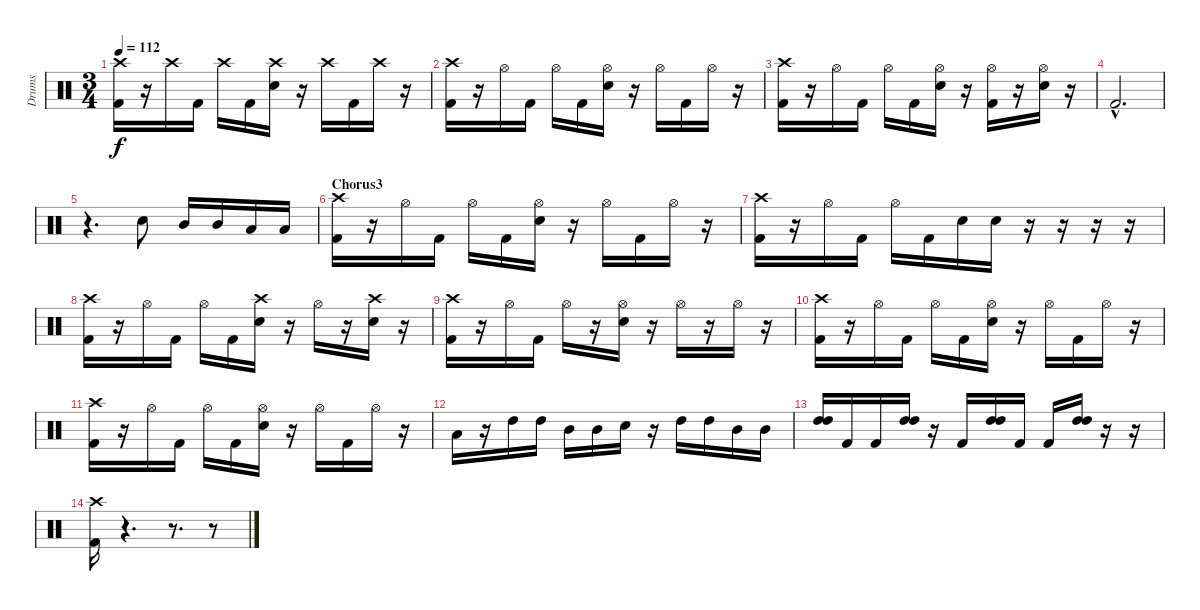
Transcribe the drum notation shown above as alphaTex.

\track ("Drums" "Drums") {instrument percussion}
\staff {score}
\articulation defaults
\ts (3 4)
\tempo 112
\clef neutral
\ks c
("Crash high (hit)" "Kick (hit) 2").16{dy f} r.16 "Crash high (hit)".16 "Kick (hit) 2".16 "Crash high (hit)".16 "Kick (hit) 2".16 ("Crash high (hit)" "Electric Snare (hit)").16 r.16 "Crash high (hit)".16 "Kick (hit) 2".16 "Crash high (hit)".16 r.16 |
("Crash high (hit)" "Kick (hit) 2").16 r.16 "Hi-Hat (open)".16 "Kick (hit) 2".16 "Hi-Hat (open)".16 "Kick (hit) 2".16 ("Hi-Hat (open)" "Electric Snare (hit)").16 r.16 "Hi-Hat (open)".16 "Kick (hit) 2".16 "Hi-Hat (open)".16 r.16 |
("Crash high (hit)" "Kick (hit) 2").16 r.16 "Hi-Hat (open)".16 "Kick (hit) 2".16 "Hi-Hat (open)".16 "Kick (hit) 2".16 ("Hi-Hat (open)" "Electric Snare (hit)").16 r.16 ("Hi-Hat (open)" "Kick (hit) 2").16 r.16 ("Hi-Hat (open)" "Electric Snare (hit)").16 r.16 |
"Kick (hit) 2"{hac}.2{d} |
r.4{d} "Electric Snare (hit)".8 "Mid Tom (hit)".16 "Mid Tom (hit)".16 "Low Tom (hit)".16 "Low Tom (hit)".16 |
\section ("" "Chorus3")
("Crash high (hit)" "Kick (hit) 2").16 r.16 "Hi-Hat (open)".16 "Kick (hit) 2".16 "Hi-Hat (open)".16 "Kick (hit) 2".16 ("Hi-Hat (open)" "Electric Snare (hit)").16 r.16 "Hi-Hat (open)".16 "Kick (hit) 2".16 "Hi-Hat (open)".16 r.16 |
("Crash high (hit)" "Kick (hit) 2").16 r.16 "Hi-Hat (open)".16 "Kick (hit) 2".16 "Hi-Hat (open)".16 "Kick (hit) 2".16 "Electric Snare (hit)".16 "Electric Snare (hit)".16 r.16 r.16 r.16 r.16 |
("Crash high (hit)" "Kick (hit) 2").16 r.16 "Hi-Hat (open)".16 "Kick (hit) 2".16 "Hi-Hat (open)".16 "Kick (hit) 2".16 ("Crash high (hit)" "Electric Snare (hit)").16 r.16 "Hi-Hat (open)".16 r.16 ("Crash high (hit)" "Electric Snare (hit)").16 r.16 |
("Crash high (hit)" "Kick (hit) 2").16 r.16 "Hi-Hat (open)".16 "Kick (hit) 2".16 "Hi-Hat (open)".16 r.16 ("Hi-Hat (open)" "Electric Snare (hit)").16 r.16 "Hi-Hat (open)".16 r.16 "Hi-Hat (open)".16 r.16 |
("Crash high (hit)" "Kick (hit) 2").16 r.16 "Hi-Hat (open)".16 "Kick (hit) 2".16 "Hi-Hat (open)".16 "Kick (hit) 2".16 ("Hi-Hat (open)" "Electric Snare (hit)").16 r.16 "Hi-Hat (open)".16 "Kick (hit) 2".16 "Hi-Hat (open)".16 r.16 |
("Crash high (hit)" "Kick (hit) 2").16 r.16 "Hi-Hat (open)".16 "Kick (hit) 2".16 "Hi-Hat (open)".16 "Kick (hit) 2".16 ("Hi-Hat (open)" "Electric Snare (hit)").16 r.16 "Hi-Hat (open)".16 "Kick (hit) 2".16 "Hi-Hat (open)".16 r.16 |
"Low Tom (hit)".16 r.16 "High Tom (hit)".16 "High Tom (hit)".16 "Mid Tom (hit)".16 "Mid Tom (hit)".16 "Electric Snare (hit)".16 r.16 "High Tom (hit)".16 "High Tom (hit)".16 "Mid Tom (hit)".16 "Mid Tom (hit)".16 |
("High Tom (hit)" "High Tom (hit)").16 "Kick (hit) 2".16 "Kick (hit) 2".16 ("High Tom (hit)" "High Tom (hit)").16 r.16 "Kick (hit) 2".16 ("High Tom (hit)" "High Tom (hit)").16 "Kick (hit) 2".16 "Kick (hit) 2".16 ("High Tom (hit)" "High Tom (hit)").16 r.16 r.16 |
("Crash high (hit)" "Kick (hit) 2").16 r.4{d} r.8{d} r.8
